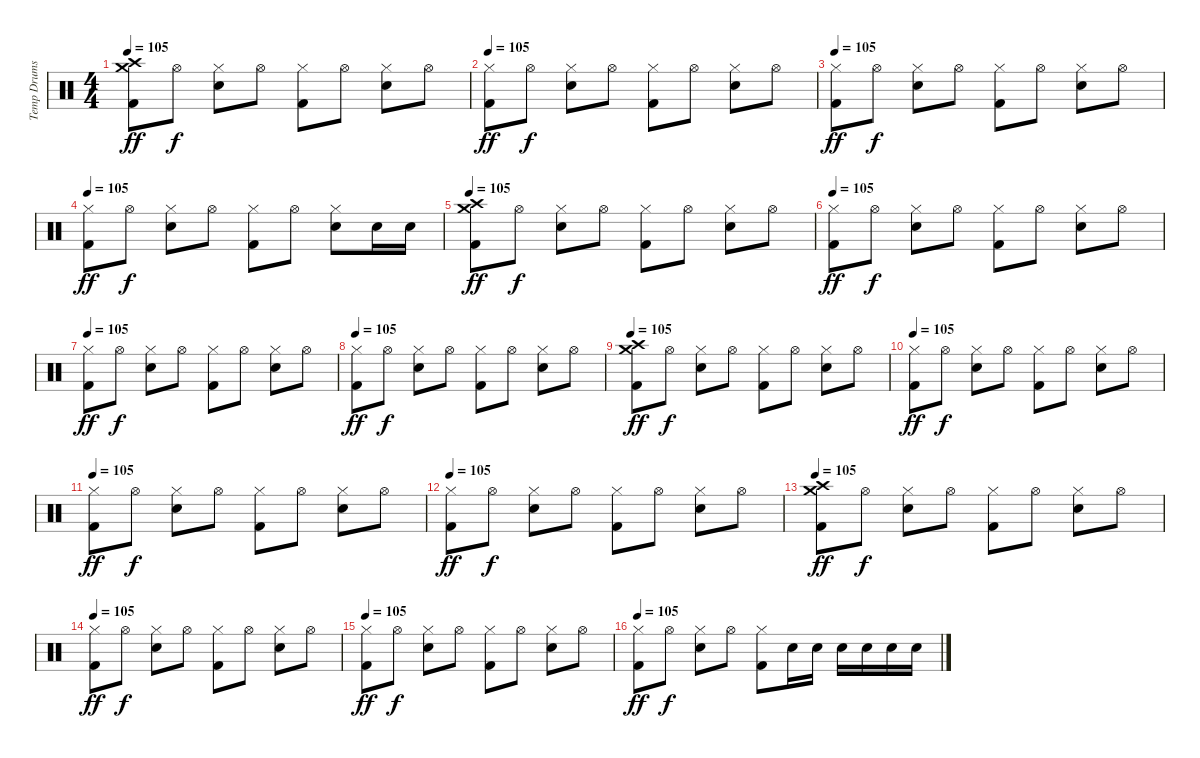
\track ("Temp Drums (i dont know them!)" "Temp Drums") {instrument percussion}
\staff {score}
\articulation defaults
\ts (4 4)
\tempo 105
\clef neutral
\ks c
("Crash high (hit)" "Crash medium (hit)" "Kick (hit) 2").8{dy ff} "Hi-Hat (open)".8{dy f} ("Hi-Hat (closed)" "Snare (hit) 2").8 "Hi-Hat (open)".8 ("Hi-Hat (closed)" "Kick (hit) 2").8 "Hi-Hat (open)".8 ("Hi-Hat (closed)" "Snare (hit) 2").8 "Hi-Hat (open)".8 |
\tempo 105
("Hi-Hat (closed)" "Kick (hit) 2").8{dy ff} "Hi-Hat (open)".8{dy f} ("Hi-Hat (closed)" "Snare (hit) 2").8 "Hi-Hat (open)".8 ("Hi-Hat (closed)" "Kick (hit) 2").8 "Hi-Hat (open)".8 ("Hi-Hat (closed)" "Snare (hit) 2").8 "Hi-Hat (open)".8 |
\tempo 105
("Hi-Hat (closed)" "Kick (hit) 2").8{dy ff} "Hi-Hat (open)".8{dy f} ("Hi-Hat (closed)" "Snare (hit) 2").8 "Hi-Hat (open)".8 ("Hi-Hat (closed)" "Kick (hit) 2").8 "Hi-Hat (open)".8 ("Hi-Hat (closed)" "Snare (hit) 2").8 "Hi-Hat (open)".8 |
\tempo 105
("Hi-Hat (closed)" "Kick (hit) 2").8{dy ff} "Hi-Hat (open)".8{dy f} ("Hi-Hat (closed)" "Snare (hit) 2").8 "Hi-Hat (open)".8 ("Hi-Hat (closed)" "Kick (hit) 2").8 "Hi-Hat (open)".8 ("Hi-Hat (closed)" "Snare (hit) 2").8 "Snare (hit) 2".16 "Snare (hit) 2".16 |
\tempo 105
("Crash high (hit)" "Crash medium (hit)" "Kick (hit) 2").8{dy ff} "Hi-Hat (open)".8{dy f} ("Hi-Hat (closed)" "Snare (hit) 2").8 "Hi-Hat (open)".8 ("Hi-Hat (closed)" "Kick (hit) 2").8 "Hi-Hat (open)".8 ("Hi-Hat (closed)" "Snare (hit) 2").8 "Hi-Hat (open)".8 |
\tempo 105
("Hi-Hat (closed)" "Kick (hit) 2").8{dy ff} "Hi-Hat (open)".8{dy f} ("Hi-Hat (closed)" "Snare (hit) 2").8 "Hi-Hat (open)".8 ("Hi-Hat (closed)" "Kick (hit) 2").8 "Hi-Hat (open)".8 ("Hi-Hat (closed)" "Snare (hit) 2").8 "Hi-Hat (open)".8 |
\tempo 105
("Hi-Hat (closed)" "Kick (hit) 2").8{dy ff} "Hi-Hat (open)".8{dy f} ("Hi-Hat (closed)" "Snare (hit) 2").8 "Hi-Hat (open)".8 ("Hi-Hat (closed)" "Kick (hit) 2").8 "Hi-Hat (open)".8 ("Hi-Hat (closed)" "Snare (hit) 2").8 "Hi-Hat (open)".8 |
\tempo 105
("Hi-Hat (closed)" "Kick (hit) 2").8{dy ff} "Hi-Hat (open)".8{dy f} ("Hi-Hat (closed)" "Snare (hit) 2").8 "Hi-Hat (open)".8 ("Hi-Hat (closed)" "Kick (hit) 2").8 "Hi-Hat (open)".8 ("Hi-Hat (closed)" "Snare (hit) 2").8 "Hi-Hat (open)".8 |
\tempo 105
("Crash high (hit)" "Crash medium (hit)" "Kick (hit) 2").8{dy ff} "Hi-Hat (open)".8{dy f} ("Hi-Hat (closed)" "Snare (hit) 2").8 "Hi-Hat (open)".8 ("Hi-Hat (closed)" "Kick (hit) 2").8 "Hi-Hat (open)".8 ("Hi-Hat (closed)" "Snare (hit) 2").8 "Hi-Hat (open)".8 |
\tempo 105
("Hi-Hat (closed)" "Kick (hit) 2").8{dy ff} "Hi-Hat (open)".8{dy f} ("Hi-Hat (closed)" "Snare (hit) 2").8 "Hi-Hat (open)".8 ("Hi-Hat (closed)" "Kick (hit) 2").8 "Hi-Hat (open)".8 ("Hi-Hat (closed)" "Snare (hit) 2").8 "Hi-Hat (open)".8 |
\tempo 105
("Hi-Hat (closed)" "Kick (hit) 2").8{dy ff} "Hi-Hat (open)".8{dy f} ("Hi-Hat (closed)" "Snare (hit) 2").8 "Hi-Hat (open)".8 ("Hi-Hat (closed)" "Kick (hit) 2").8 "Hi-Hat (open)".8 ("Hi-Hat (closed)" "Snare (hit) 2").8 "Hi-Hat (open)".8 |
\tempo 105
("Hi-Hat (closed)" "Kick (hit) 2").8{dy ff} "Hi-Hat (open)".8{dy f} ("Hi-Hat (closed)" "Snare (hit) 2").8 "Hi-Hat (open)".8 ("Hi-Hat (closed)" "Kick (hit) 2").8 "Hi-Hat (open)".8 ("Hi-Hat (closed)" "Snare (hit) 2").8 "Hi-Hat (open)".8 |
\tempo 105
("Crash high (hit)" "Crash medium (hit)" "Kick (hit) 2").8{dy ff} "Hi-Hat (open)".8{dy f} ("Hi-Hat (closed)" "Snare (hit) 2").8 "Hi-Hat (open)".8 ("Hi-Hat (closed)" "Kick (hit) 2").8 "Hi-Hat (open)".8 ("Hi-Hat (closed)" "Snare (hit) 2").8 "Hi-Hat (open)".8 |
\tempo 105
("Hi-Hat (closed)" "Kick (hit) 2").8{dy ff} "Hi-Hat (open)".8{dy f} ("Hi-Hat (closed)" "Snare (hit) 2").8 "Hi-Hat (open)".8 ("Hi-Hat (closed)" "Kick (hit) 2").8 "Hi-Hat (open)".8 ("Hi-Hat (closed)" "Snare (hit) 2").8 "Hi-Hat (open)".8 |
\tempo 105
("Hi-Hat (closed)" "Kick (hit) 2").8{dy ff} "Hi-Hat (open)".8{dy f} ("Hi-Hat (closed)" "Snare (hit) 2").8 "Hi-Hat (open)".8 ("Hi-Hat (closed)" "Kick (hit) 2").8 "Hi-Hat (open)".8 ("Hi-Hat (closed)" "Snare (hit) 2").8 "Hi-Hat (open)".8 |
\tempo 105
("Hi-Hat (closed)" "Kick (hit) 2").8{dy ff} "Hi-Hat (open)".8{dy f} ("Hi-Hat (closed)" "Snare (hit) 2").8 "Hi-Hat (open)".8 ("Hi-Hat (closed)" "Kick (hit) 2").8 "Snare (hit) 2".16 "Snare (hit) 2".16 "Snare (hit) 2".16 "Snare (hit) 2".16 "Snare (hit) 2".16 "Snare (hit) 2".16
